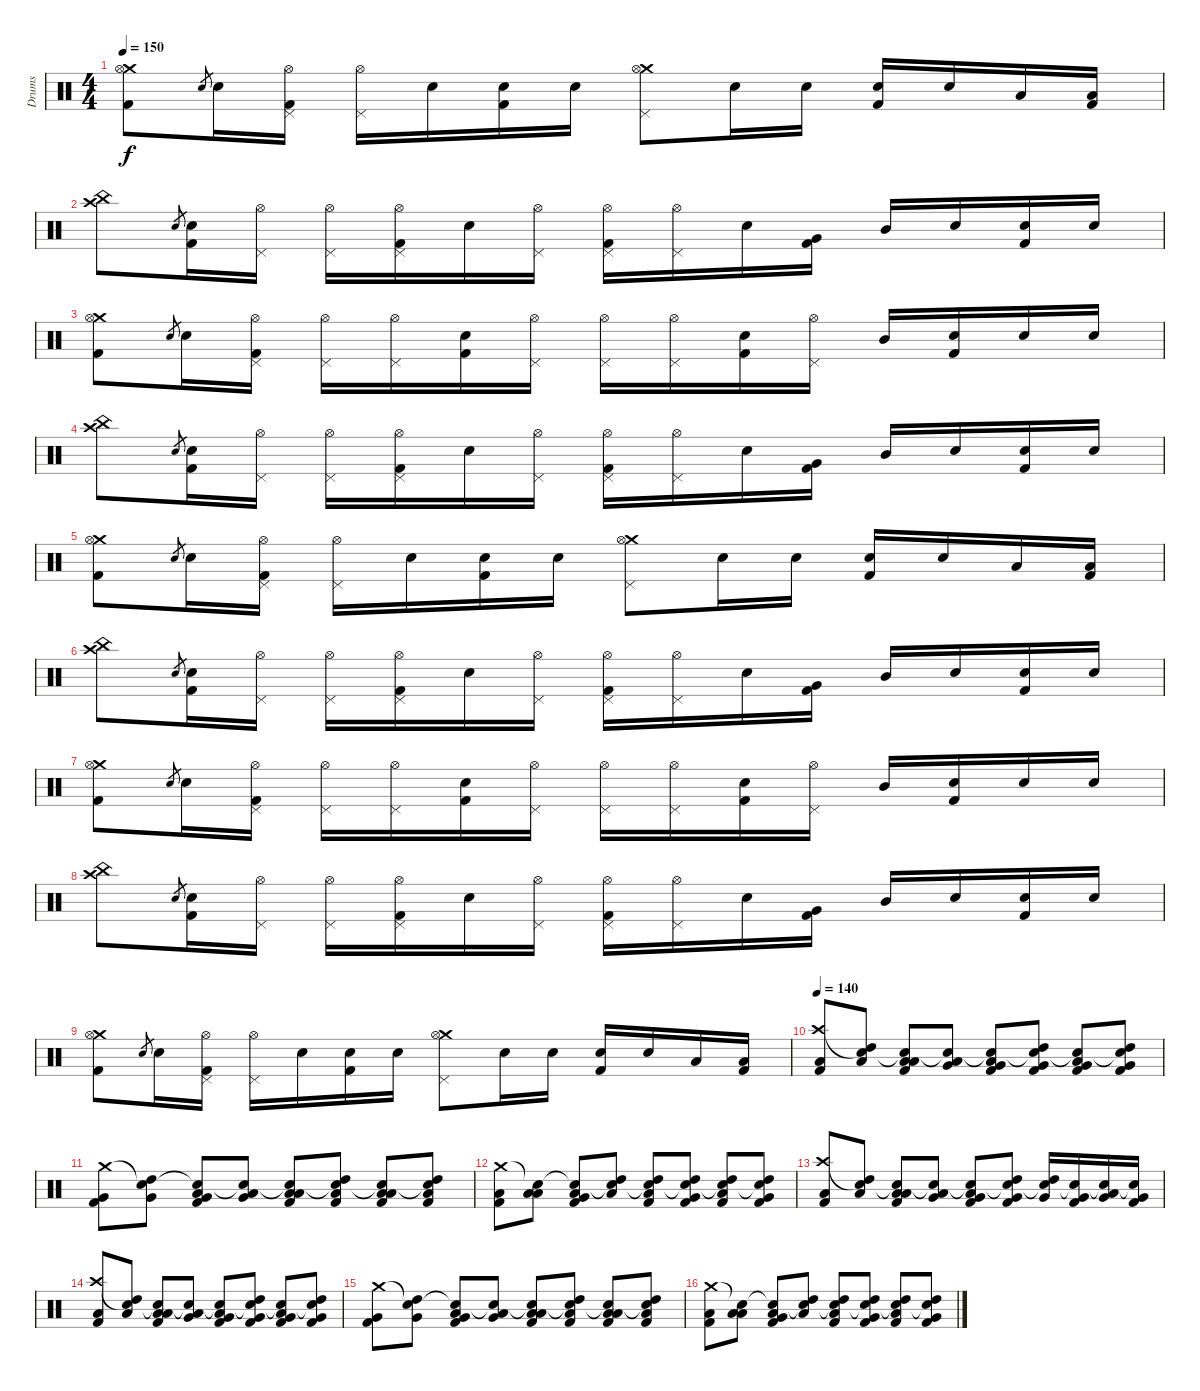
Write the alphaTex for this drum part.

\track ("Drums" "Drums") {instrument percussion}
\staff {score}
\articulation defaults
\ts (4 4)
\tempo 150
\clef neutral
\ks c
("Crash medium (hit)" "Kick (hit) 2" "Hi-Hat (open)").8{dy f} "Snare (hit) 2".8{gr} "Snare (hit) 2".16 ("Hi-Hat (open)" "Pedal Hi-Hat (hit)" "Kick (hit) 2").16 ("Hi-Hat (open)" "Pedal Hi-Hat (hit)").16 "Snare (hit) 2".16 ("Snare (hit) 2" "Kick (hit) 2").16 "Snare (hit) 2".16 ("Crash medium (hit)" "Hi-Hat (open)" "Pedal Hi-Hat (hit)").8 "Snare (hit) 2".16 "Snare (hit) 2".16 ("Snare (hit) 2" "Kick (hit) 2").16 "Snare (hit) 2".16 "Low Tom (hit)".16 ("Low Tom (hit)" "Kick (hit) 2").16 |
("Crash high (hit)" "China (hit)").8 "Snare (hit) 2".8{gr} ("Snare (hit) 2" "Kick (hit) 2").16 ("Hi-Hat (open)" "Pedal Hi-Hat (hit)").16 ("Hi-Hat (open)" "Pedal Hi-Hat (hit)").16 ("Hi-Hat (open)" "Pedal Hi-Hat (hit)" "Kick (hit) 2").16 "Snare (hit) 2".16 ("Hi-Hat (open)" "Pedal Hi-Hat (hit)").16 ("Hi-Hat (open)" "Pedal Hi-Hat (hit)" "Kick (hit) 2").16 ("Hi-Hat (open)" "Pedal Hi-Hat (hit)").16 "Snare (hit) 2".16 ("Very Low Tom (hit)" "Kick (hit) 2").16 "Mid Tom (hit)".16 "Snare (hit) 2".16 ("Snare (hit) 2" "Kick (hit) 2").16 "Snare (hit) 2".16 |
("Crash medium (hit)" "Kick (hit) 2" "Hi-Hat (open)").8 "Snare (hit) 2".8{gr} "Snare (hit) 2".16 ("Hi-Hat (open)" "Pedal Hi-Hat (hit)" "Kick (hit) 2").16 ("Hi-Hat (open)" "Pedal Hi-Hat (hit)").16 ("Hi-Hat (open)" "Pedal Hi-Hat (hit)").16 ("Snare (hit) 2" "Kick (hit) 2").16 ("Hi-Hat (open)" "Pedal Hi-Hat (hit)").16 ("Hi-Hat (open)" "Pedal Hi-Hat (hit)").16 ("Hi-Hat (open)" "Pedal Hi-Hat (hit)").16 ("Snare (hit) 2" "Kick (hit) 2").16 ("Hi-Hat (open)" "Pedal Hi-Hat (hit)").16 "Mid Tom (hit)".16 ("Snare (hit) 2" "Kick (hit) 2").16 "Snare (hit) 2".16 "Snare (hit) 2".16 |
("Crash high (hit)" "China (hit)").8 "Snare (hit) 2".8{gr} ("Snare (hit) 2" "Kick (hit) 2").16 ("Hi-Hat (open)" "Pedal Hi-Hat (hit)").16 ("Hi-Hat (open)" "Pedal Hi-Hat (hit)").16 ("Hi-Hat (open)" "Pedal Hi-Hat (hit)" "Kick (hit) 2").16 "Snare (hit) 2".16 ("Hi-Hat (open)" "Pedal Hi-Hat (hit)").16 ("Hi-Hat (open)" "Pedal Hi-Hat (hit)" "Kick (hit) 2").16 ("Hi-Hat (open)" "Pedal Hi-Hat (hit)").16 "Snare (hit) 2".16 ("Very Low Tom (hit)" "Kick (hit) 2").16 "Mid Tom (hit)".16 "Snare (hit) 2".16 ("Snare (hit) 2" "Kick (hit) 2").16 "Snare (hit) 2".16 |
("Crash medium (hit)" "Kick (hit) 2" "Hi-Hat (open)").8 "Snare (hit) 2".8{gr} "Snare (hit) 2".16 ("Hi-Hat (open)" "Pedal Hi-Hat (hit)" "Kick (hit) 2").16 ("Hi-Hat (open)" "Pedal Hi-Hat (hit)").16 "Snare (hit) 2".16 ("Snare (hit) 2" "Kick (hit) 2").16 "Snare (hit) 2".16 ("Crash medium (hit)" "Hi-Hat (open)" "Pedal Hi-Hat (hit)").8 "Snare (hit) 2".16 "Snare (hit) 2".16 ("Snare (hit) 2" "Kick (hit) 2").16 "Snare (hit) 2".16 "Low Tom (hit)".16 ("Low Tom (hit)" "Kick (hit) 2").16 |
("Crash high (hit)" "China (hit)").8 "Snare (hit) 2".8{gr} ("Snare (hit) 2" "Kick (hit) 2").16 ("Hi-Hat (open)" "Pedal Hi-Hat (hit)").16 ("Hi-Hat (open)" "Pedal Hi-Hat (hit)").16 ("Hi-Hat (open)" "Pedal Hi-Hat (hit)" "Kick (hit) 2").16 "Snare (hit) 2".16 ("Hi-Hat (open)" "Pedal Hi-Hat (hit)").16 ("Hi-Hat (open)" "Pedal Hi-Hat (hit)" "Kick (hit) 2").16 ("Hi-Hat (open)" "Pedal Hi-Hat (hit)").16 "Snare (hit) 2".16 ("Very Low Tom (hit)" "Kick (hit) 2").16 "Mid Tom (hit)".16 "Snare (hit) 2".16 ("Snare (hit) 2" "Kick (hit) 2").16 "Snare (hit) 2".16 |
("Crash medium (hit)" "Kick (hit) 2" "Hi-Hat (open)").8 "Snare (hit) 2".8{gr} "Snare (hit) 2".16 ("Hi-Hat (open)" "Pedal Hi-Hat (hit)" "Kick (hit) 2").16 ("Hi-Hat (open)" "Pedal Hi-Hat (hit)").16 ("Hi-Hat (open)" "Pedal Hi-Hat (hit)").16 ("Snare (hit) 2" "Kick (hit) 2").16 ("Hi-Hat (open)" "Pedal Hi-Hat (hit)").16 ("Hi-Hat (open)" "Pedal Hi-Hat (hit)").16 ("Hi-Hat (open)" "Pedal Hi-Hat (hit)").16 ("Snare (hit) 2" "Kick (hit) 2").16 ("Hi-Hat (open)" "Pedal Hi-Hat (hit)").16 "Mid Tom (hit)".16 ("Snare (hit) 2" "Kick (hit) 2").16 "Snare (hit) 2".16 "Snare (hit) 2".16 |
("Crash high (hit)" "China (hit)").8 "Snare (hit) 2".8{gr} ("Snare (hit) 2" "Kick (hit) 2").16 ("Hi-Hat (open)" "Pedal Hi-Hat (hit)").16 ("Hi-Hat (open)" "Pedal Hi-Hat (hit)").16 ("Hi-Hat (open)" "Pedal Hi-Hat (hit)" "Kick (hit) 2").16 "Snare (hit) 2".16 ("Hi-Hat (open)" "Pedal Hi-Hat (hit)").16 ("Hi-Hat (open)" "Pedal Hi-Hat (hit)" "Kick (hit) 2").16 ("Hi-Hat (open)" "Pedal Hi-Hat (hit)").16 "Snare (hit) 2".16 ("Very Low Tom (hit)" "Kick (hit) 2").16 "Mid Tom (hit)".16 "Snare (hit) 2".16 ("Snare (hit) 2" "Kick (hit) 2").16 "Snare (hit) 2".16 |
("Crash medium (hit)" "Kick (hit) 2" "Hi-Hat (open)").8 "Snare (hit) 2".8{gr} "Snare (hit) 2".16 ("Hi-Hat (open)" "Pedal Hi-Hat (hit)" "Kick (hit) 2").16 ("Hi-Hat (open)" "Pedal Hi-Hat (hit)").16 "Snare (hit) 2".16 ("Snare (hit) 2" "Kick (hit) 2").16 "Snare (hit) 2".16 ("Crash medium (hit)" "Hi-Hat (open)" "Pedal Hi-Hat (hit)").8 "Snare (hit) 2".16 "Snare (hit) 2".16 ("Snare (hit) 2" "Kick (hit) 2").16 "Snare (hit) 2".16 "Low Tom (hit)".16 ("Low Tom (hit)" "Kick (hit) 2").16 |
\tempo 140
("Crash high (hit)" "Low Floor Tom (hit)" "Kick (hit) 2").8{volume 9} ("Snare (hit)"{t} "Low Floor Tom (hit)" "High Tom (hit)").8 ("Snare (hit)"{t} "Low Floor Tom (hit)" "Low Tom (hit)" "Kick (hit) 2").8 ("Snare (hit)"{t} "Low Floor Tom (hit)" "Very Low Tom (hit)").8 ("Snare (hit)"{t} "Very Low Tom (hit)" "Low Tom (hit)" "Kick (hit) 2").8 ("Snare (hit)"{t} "Very Low Tom (hit)" "Kick (hit) 2" "High Tom (hit)").8 ("Snare (hit)"{t} "Very Low Tom (hit)" "Low Tom (hit)" "Kick (hit) 2").8 ("Snare (hit)"{t} "Very Low Tom (hit)" "Kick (hit) 2" "High Tom (hit)").8 |
("Crash medium (hit)" "Very Low Tom (hit)" "Kick (hit) 2").8 ("Snare (hit)"{t} "Very Low Tom (hit)" "High Tom (hit)").8 ("Snare (hit)"{t} "Very Low Tom (hit)" "Low Tom (hit)" "Kick (hit) 2").8 ("Snare (hit)"{t} "Very Low Tom (hit)" "Low Floor Tom (hit)").8 ("Snare (hit)"{t} "Low Floor Tom (hit)" "Low Tom (hit)" "Kick (hit) 2").8 ("Snare (hit)"{t} "Low Floor Tom (hit)" "Kick (hit) 2" "High Tom (hit)").8 ("Snare (hit)"{t} "Low Floor Tom (hit)" "Low Tom (hit)" "Kick (hit) 2").8 ("Snare (hit)"{t} "Low Floor Tom (hit)" "Kick (hit) 2" "High Tom (hit)").8 |
("Crash medium (hit)" "Low Tom (hit)" "Kick (hit) 2").8 ("Snare (hit)"{t} "Low Tom (hit)" "Low Floor Tom (hit)").8 ("Snare (hit)"{t} "Low Tom (hit)" "Very Low Tom (hit)" "Kick (hit) 2").8 ("Snare (hit)"{t} "Low Tom (hit)" "High Tom (hit)").8 ("Snare (hit)"{t} "High Tom (hit)" "Low Floor Tom (hit)" "Kick (hit) 2").8 ("Snare (hit)"{t} "High Tom (hit)" "Kick (hit) 2" "Very Low Tom (hit)").8 ("Snare (hit)"{t} "High Tom (hit)" "Low Floor Tom (hit)" "Kick (hit) 2").8 ("Snare (hit)"{t} "High Tom (hit)" "Kick (hit) 2" "Very Low Tom (hit)").8 |
("Crash high (hit)" "Low Floor Tom (hit)" "Kick (hit) 2").8 ("Snare (hit)"{t} "Low Floor Tom (hit)" "High Tom (hit)").8 ("Snare (hit)"{t} "Low Floor Tom (hit)" "Low Tom (hit)" "Kick (hit) 2").8 ("Snare (hit)"{t} "Low Floor Tom (hit)" "Very Low Tom (hit)").8 ("Snare (hit)"{t} "Very Low Tom (hit)" "Low Tom (hit)" "Kick (hit) 2").8 ("Snare (hit)"{t} "Very Low Tom (hit)" "Kick (hit) 2" "High Tom (hit)").8 ("Snare (hit)"{t} "High Tom (hit)" "Very Low Tom (hit)").16 ("Snare (hit)"{t} "Kick (hit) 2" "Very Low Tom (hit)").16 ("Snare (hit)"{t} "Low Tom (hit)" "Very Low Tom (hit)").16 ("Snare (hit)"{t} "Kick (hit) 2" "Very Low Tom (hit)").16 |
("Crash high (hit)" "Low Floor Tom (hit)" "Kick (hit) 2").8 ("Snare (hit)"{t} "Low Floor Tom (hit)" "High Tom (hit)").8 ("Snare (hit)"{t} "Low Floor Tom (hit)" "Low Tom (hit)" "Kick (hit) 2").8 ("Snare (hit)"{t} "Low Floor Tom (hit)" "Very Low Tom (hit)").8 ("Snare (hit)"{t} "Very Low Tom (hit)" "Low Tom (hit)" "Kick (hit) 2").8 ("Snare (hit)"{t} "Very Low Tom (hit)" "Kick (hit) 2" "High Tom (hit)").8 ("Snare (hit)"{t} "Very Low Tom (hit)" "Low Tom (hit)" "Kick (hit) 2").8 ("Snare (hit)"{t} "Very Low Tom (hit)" "Kick (hit) 2" "High Tom (hit)").8 |
("Crash medium (hit)" "Very Low Tom (hit)" "Kick (hit) 2").8 ("Snare (hit)"{t} "Very Low Tom (hit)" "High Tom (hit)").8 ("Snare (hit)"{t} "Very Low Tom (hit)" "Low Tom (hit)" "Kick (hit) 2").8 ("Snare (hit)"{t} "Very Low Tom (hit)" "Low Floor Tom (hit)").8 ("Snare (hit)"{t} "Low Floor Tom (hit)" "Low Tom (hit)" "Kick (hit) 2").8 ("Snare (hit)"{t} "Low Floor Tom (hit)" "Kick (hit) 2" "High Tom (hit)").8 ("Snare (hit)"{t} "Low Floor Tom (hit)" "Low Tom (hit)" "Kick (hit) 2").8 ("Snare (hit)"{t} "Low Floor Tom (hit)" "Kick (hit) 2" "High Tom (hit)").8 |
("Crash medium (hit)" "Low Tom (hit)" "Kick (hit) 2").8 ("Snare (hit)"{t} "Low Tom (hit)" "Low Floor Tom (hit)").8 ("Snare (hit)"{t} "Low Tom (hit)" "Very Low Tom (hit)" "Kick (hit) 2").8 ("Snare (hit)"{t} "Low Tom (hit)" "High Tom (hit)").8 ("Snare (hit)"{t} "High Tom (hit)" "Low Floor Tom (hit)" "Kick (hit) 2").8 ("Snare (hit)"{t} "High Tom (hit)" "Kick (hit) 2" "Very Low Tom (hit)").8 ("Snare (hit)"{t} "High Tom (hit)" "Low Floor Tom (hit)" "Kick (hit) 2").8 ("Snare (hit)"{t} "High Tom (hit)" "Kick (hit) 2" "Very Low Tom (hit)").8
